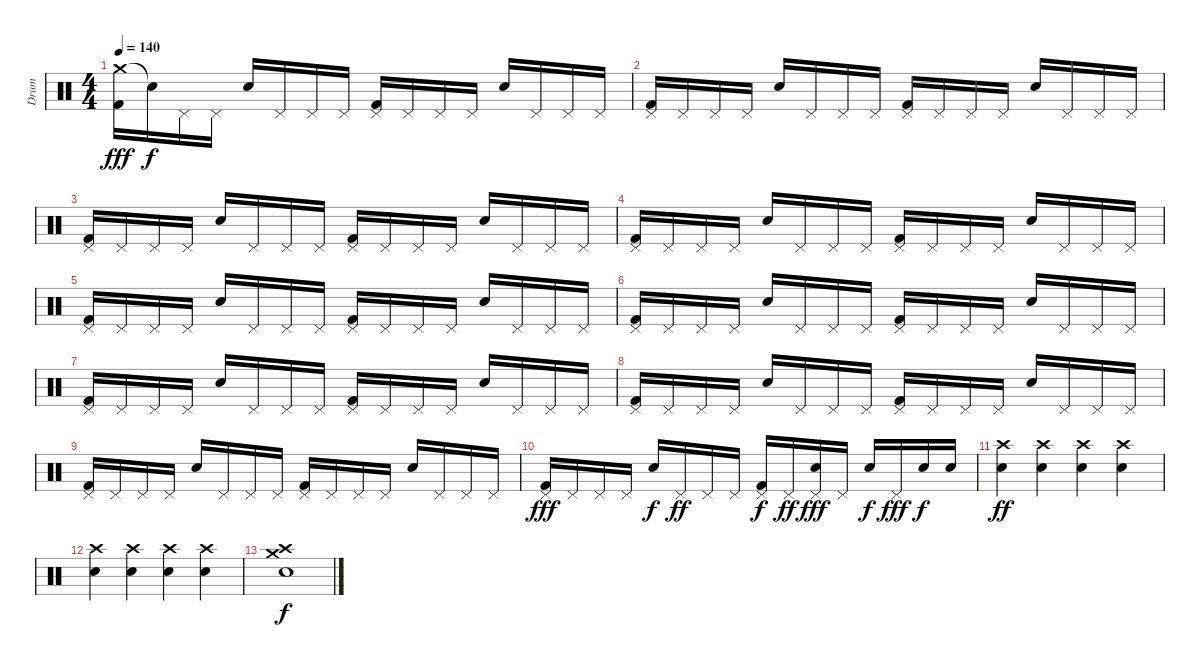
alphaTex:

\track ("Drum" "Drum") {instrument percussion}
\staff {score}
\articulation defaults
\ts (4 4)
\tempo 140
\clef neutral
\ks c
("Crash medium (hit)" "Kick (hit) 2").16{dy fff} "Snare (hit)"{t}.16{dy f} "Pedal Hi-Hat (hit)".16 "Pedal Hi-Hat (hit)".16 "Snare (hit) 2".16 "Pedal Hi-Hat (hit)".16 "Pedal Hi-Hat (hit)".16 "Pedal Hi-Hat (hit)".16 ("Pedal Hi-Hat (hit)" "Kick (hit) 2").16 "Pedal Hi-Hat (hit)".16 "Pedal Hi-Hat (hit)".16 "Pedal Hi-Hat (hit)".16 "Snare (hit) 2".16 "Pedal Hi-Hat (hit)".16 "Pedal Hi-Hat (hit)".16 "Pedal Hi-Hat (hit)".16 |
("Pedal Hi-Hat (hit)" "Kick (hit) 2").16 "Pedal Hi-Hat (hit)".16 "Pedal Hi-Hat (hit)".16 "Pedal Hi-Hat (hit)".16 "Snare (hit) 2".16 "Pedal Hi-Hat (hit)".16 "Pedal Hi-Hat (hit)".16 "Pedal Hi-Hat (hit)".16 ("Pedal Hi-Hat (hit)" "Kick (hit) 2").16 "Pedal Hi-Hat (hit)".16 "Pedal Hi-Hat (hit)".16 "Pedal Hi-Hat (hit)".16 "Snare (hit) 2".16 "Pedal Hi-Hat (hit)".16 "Pedal Hi-Hat (hit)".16 "Pedal Hi-Hat (hit)".16 |
("Pedal Hi-Hat (hit)" "Kick (hit) 2").16 "Pedal Hi-Hat (hit)".16 "Pedal Hi-Hat (hit)".16 "Pedal Hi-Hat (hit)".16 "Snare (hit) 2".16 "Pedal Hi-Hat (hit)".16 "Pedal Hi-Hat (hit)".16 "Pedal Hi-Hat (hit)".16 ("Pedal Hi-Hat (hit)" "Kick (hit) 2").16 "Pedal Hi-Hat (hit)".16 "Pedal Hi-Hat (hit)".16 "Pedal Hi-Hat (hit)".16 "Snare (hit) 2".16 "Pedal Hi-Hat (hit)".16 "Pedal Hi-Hat (hit)".16 "Pedal Hi-Hat (hit)".16 |
("Pedal Hi-Hat (hit)" "Kick (hit) 2").16 "Pedal Hi-Hat (hit)".16 "Pedal Hi-Hat (hit)".16 "Pedal Hi-Hat (hit)".16 "Snare (hit) 2".16 "Pedal Hi-Hat (hit)".16 "Pedal Hi-Hat (hit)".16 "Pedal Hi-Hat (hit)".16 ("Pedal Hi-Hat (hit)" "Kick (hit) 2").16 "Pedal Hi-Hat (hit)".16 "Pedal Hi-Hat (hit)".16 "Pedal Hi-Hat (hit)".16 "Snare (hit) 2".16 "Pedal Hi-Hat (hit)".16 "Pedal Hi-Hat (hit)".16 "Pedal Hi-Hat (hit)".16 |
("Pedal Hi-Hat (hit)" "Kick (hit) 2").16 "Pedal Hi-Hat (hit)".16 "Pedal Hi-Hat (hit)".16 "Pedal Hi-Hat (hit)".16 "Snare (hit) 2".16 "Pedal Hi-Hat (hit)".16 "Pedal Hi-Hat (hit)".16 "Pedal Hi-Hat (hit)".16 ("Pedal Hi-Hat (hit)" "Kick (hit) 2").16 "Pedal Hi-Hat (hit)".16 "Pedal Hi-Hat (hit)".16 "Pedal Hi-Hat (hit)".16 "Snare (hit) 2".16 "Pedal Hi-Hat (hit)".16 "Pedal Hi-Hat (hit)".16 "Pedal Hi-Hat (hit)".16 |
("Pedal Hi-Hat (hit)" "Kick (hit) 2").16 "Pedal Hi-Hat (hit)".16 "Pedal Hi-Hat (hit)".16 "Pedal Hi-Hat (hit)".16 "Snare (hit) 2".16 "Pedal Hi-Hat (hit)".16 "Pedal Hi-Hat (hit)".16 "Pedal Hi-Hat (hit)".16 ("Pedal Hi-Hat (hit)" "Kick (hit) 2").16 "Pedal Hi-Hat (hit)".16 "Pedal Hi-Hat (hit)".16 "Pedal Hi-Hat (hit)".16 "Snare (hit) 2".16 "Pedal Hi-Hat (hit)".16 "Pedal Hi-Hat (hit)".16 "Pedal Hi-Hat (hit)".16 |
("Pedal Hi-Hat (hit)" "Kick (hit) 2").16 "Pedal Hi-Hat (hit)".16 "Pedal Hi-Hat (hit)".16 "Pedal Hi-Hat (hit)".16 "Snare (hit) 2".16 "Pedal Hi-Hat (hit)".16 "Pedal Hi-Hat (hit)".16 "Pedal Hi-Hat (hit)".16 ("Pedal Hi-Hat (hit)" "Kick (hit) 2").16 "Pedal Hi-Hat (hit)".16 "Pedal Hi-Hat (hit)".16 "Pedal Hi-Hat (hit)".16 "Snare (hit) 2".16 "Pedal Hi-Hat (hit)".16 "Pedal Hi-Hat (hit)".16 "Pedal Hi-Hat (hit)".16 |
("Pedal Hi-Hat (hit)" "Kick (hit) 2").16 "Pedal Hi-Hat (hit)".16 "Pedal Hi-Hat (hit)".16 "Pedal Hi-Hat (hit)".16 "Snare (hit) 2".16 "Pedal Hi-Hat (hit)".16 "Pedal Hi-Hat (hit)".16 "Pedal Hi-Hat (hit)".16 ("Pedal Hi-Hat (hit)" "Kick (hit) 2").16 "Pedal Hi-Hat (hit)".16 "Pedal Hi-Hat (hit)".16 "Pedal Hi-Hat (hit)".16 "Snare (hit) 2".16 "Pedal Hi-Hat (hit)".16 "Pedal Hi-Hat (hit)".16 "Pedal Hi-Hat (hit)".16 |
("Pedal Hi-Hat (hit)" "Kick (hit) 2").16 "Pedal Hi-Hat (hit)".16 "Pedal Hi-Hat (hit)".16 "Pedal Hi-Hat (hit)".16 "Snare (hit) 2".16 "Pedal Hi-Hat (hit)".16 "Pedal Hi-Hat (hit)".16 "Pedal Hi-Hat (hit)".16 ("Pedal Hi-Hat (hit)" "Kick (hit) 2").16 "Pedal Hi-Hat (hit)".16 "Pedal Hi-Hat (hit)".16 "Pedal Hi-Hat (hit)".16 "Snare (hit) 2".16 "Pedal Hi-Hat (hit)".16 "Pedal Hi-Hat (hit)".16 "Pedal Hi-Hat (hit)".16 |
("Pedal Hi-Hat (hit)" "Kick (hit) 2").16{dy fff} "Pedal Hi-Hat (hit)".16 "Pedal Hi-Hat (hit)".16 "Pedal Hi-Hat (hit)".16 "Snare (hit) 2".16{dy f} "Pedal Hi-Hat (hit)".16{dy ff} "Pedal Hi-Hat (hit)".16 "Pedal Hi-Hat (hit)".16 ("Pedal Hi-Hat (hit)" "Kick (hit) 2").16{dy f} "Pedal Hi-Hat (hit)".16{dy ff} ("Pedal Hi-Hat (hit)" "Snare (hit) 2").16{dy fff} "Pedal Hi-Hat (hit)".16 "Snare (hit) 2".16{dy f} "Pedal Hi-Hat (hit)".16{dy fff} "Snare (hit) 2".16{dy f} "Snare (hit) 2".16 |
("Crash high (hit)" "Snare (hit) 2").4{dy ff} ("Crash high (hit)" "Snare (hit) 2").4 ("Crash high (hit)" "Snare (hit) 2").4 ("Crash high (hit)" "Snare (hit) 2").4 |
("Crash high (hit)" "Snare (hit) 2").4 ("Crash high (hit)" "Snare (hit) 2").4 ("Crash high (hit)" "Snare (hit) 2").4 ("Crash high (hit)" "Snare (hit) 2").4 |
("Crash high (hit)" "Crash medium (hit)" "Snare (hit) 2").1{dy f}
